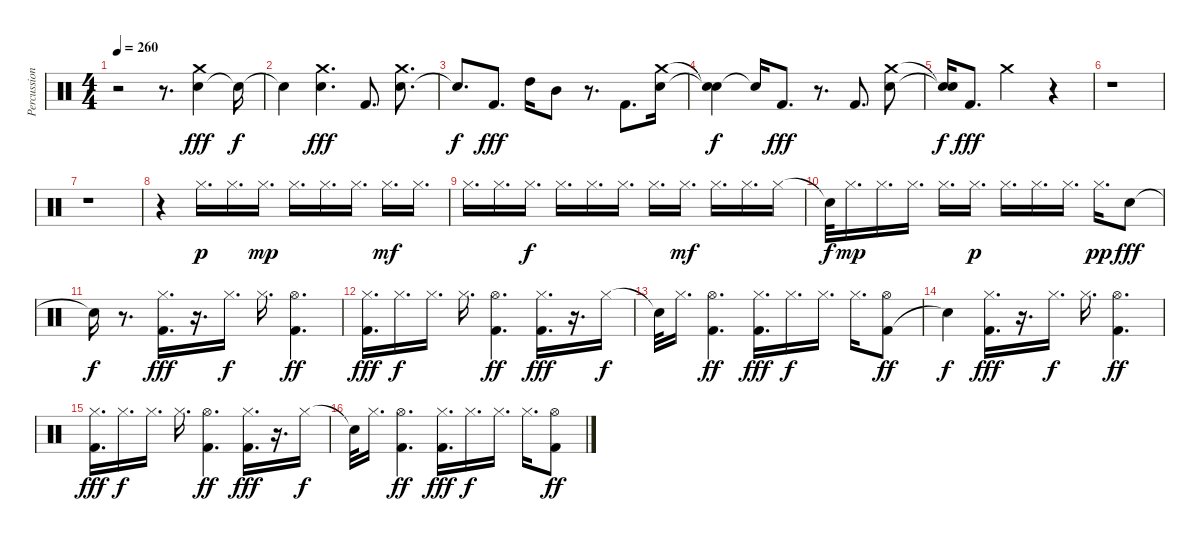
\track ("Percussion" "Percussion") {instrument percussion}
\staff {score}
\articulation defaults
\ts (4 4)
\tempo 260
\clef neutral
\ks c
r.2{dy fff} r.8{d} ("Electric Snare (hit)" "Crash medium (hit)").4 "Snare (hit)"{t}.16{dy f} |
"Snare (hit)"{t}.4 ("Electric Snare (hit)" "Crash medium (hit)").4{d dy fff} "Kick (hit) 2".8{d} ("Electric Snare (hit)" "Crash medium (hit)").8{d} |
"Snare (hit)"{t}.8{d dy f} "Kick (hit) 2".8{d dy fff} "High Tom (hit)".16 "Mid Tom (hit)".8 r.8{d} "Kick (hit) 2".8{d} ("Electric Snare (hit)" "Crash medium (hit)").16 |
("Snare (hit)"{t} "Snare (hit)"{t}).4{dy f} "Snare (hit)"{t}.16 "Kick (hit) 2".8{d dy fff} r.8{d} "Kick (hit) 2".8{d} ("Electric Snare (hit)" "Crash medium (hit)").8 |
("Snare (hit)"{t} "Snare (hit)"{t}).16{dy f} "Kick (hit) 2".8{d dy fff} "Crash medium (hit)".2 r.4 |
r.1 |
r.1 |
r.4 "Hi-Hat (closed)".16{d dy p} "Hi-Hat (closed)".16{d} "Hi-Hat (closed)".16{d dy mp} "Hi-Hat (closed)".16{d} "Hi-Hat (closed)".16{d} "Hi-Hat (closed)".16{d} "Hi-Hat (closed)".16{d dy mf} "Hi-Hat (closed)".16{d} |
"Hi-Hat (closed)".16{d} "Hi-Hat (closed)".16{d} "Hi-Hat (closed)".16{d dy f} "Hi-Hat (closed)".16{d} "Hi-Hat (closed)".16{d} "Hi-Hat (closed)".16{d} "Hi-Hat (closed)".16{d} "Hi-Hat (closed)".16{d dy mf} "Hi-Hat (closed)".16{d} "Hi-Hat (closed)".16{d} "Hi-Hat (closed)".16 |
"Snare (hit)"{t}.32{dy f} "Hi-Hat (closed)".16{d dy mp} "Hi-Hat (closed)".16{d} "Hi-Hat (closed)".16{d} "Hi-Hat (closed)".16{d} "Hi-Hat (closed)".16{d dy p} "Hi-Hat (closed)".16{d} "Hi-Hat (closed)".16{d} "Hi-Hat (closed)".16{d} "Hi-Hat (closed)".16{d dy pp} "Electric Snare (hit)".8{dy fff} |
"Snare (hit)"{t}.16{dy f} r.8{d} ("Kick (hit) 2" "Hi-Hat (closed)").16{d dy fff} r.16{d} "Hi-Hat (closed)".16{d dy f} "Hi-Hat (closed)".16{d} ("Kick (hit) 2" "Hi-Hat (open)").4{d dy ff} |
("Kick (hit) 2" "Hi-Hat (closed)").16{d dy fff} "Hi-Hat (closed)".16{d dy f} "Hi-Hat (closed)".16{d} "Hi-Hat (closed)".16{d} ("Kick (hit) 2" "Hi-Hat (open)").4{d dy ff} ("Kick (hit) 2" "Hi-Hat (closed)").16{d dy fff} r.16{d} "Hi-Hat (closed)".16{dy f} |
"Snare (hit)"{t}.32 "Hi-Hat (closed)".16{d} ("Kick (hit) 2" "Hi-Hat (open)").4{d dy ff} ("Kick (hit) 2" "Hi-Hat (closed)").16{d dy fff} "Hi-Hat (closed)".16{d dy f} "Hi-Hat (closed)".16{d} "Hi-Hat (closed)".16{d} ("Kick (hit) 2" "Hi-Hat (open)").8{dy ff} |
"Snare (hit)"{t}.4{dy f} ("Kick (hit) 2" "Hi-Hat (closed)").16{d dy fff} r.16{d} "Hi-Hat (closed)".16{d dy f} "Hi-Hat (closed)".16{d} ("Kick (hit) 2" "Hi-Hat (open)").4{d dy ff} |
("Kick (hit) 2" "Hi-Hat (closed)").16{d dy fff} "Hi-Hat (closed)".16{d dy f} "Hi-Hat (closed)".16{d} "Hi-Hat (closed)".16{d} ("Kick (hit) 2" "Hi-Hat (open)").4{d dy ff} ("Kick (hit) 2" "Hi-Hat (closed)").16{d dy fff} r.16{d} "Hi-Hat (closed)".16{dy f} |
"Snare (hit)"{t}.32 "Hi-Hat (closed)".16{d} ("Kick (hit) 2" "Hi-Hat (open)").4{d dy ff} ("Kick (hit) 2" "Hi-Hat (closed)").16{d dy fff} "Hi-Hat (closed)".16{d dy f} "Hi-Hat (closed)".16{d} "Hi-Hat (closed)".16{d} ("Kick (hit) 2" "Hi-Hat (open)").8{dy ff}
